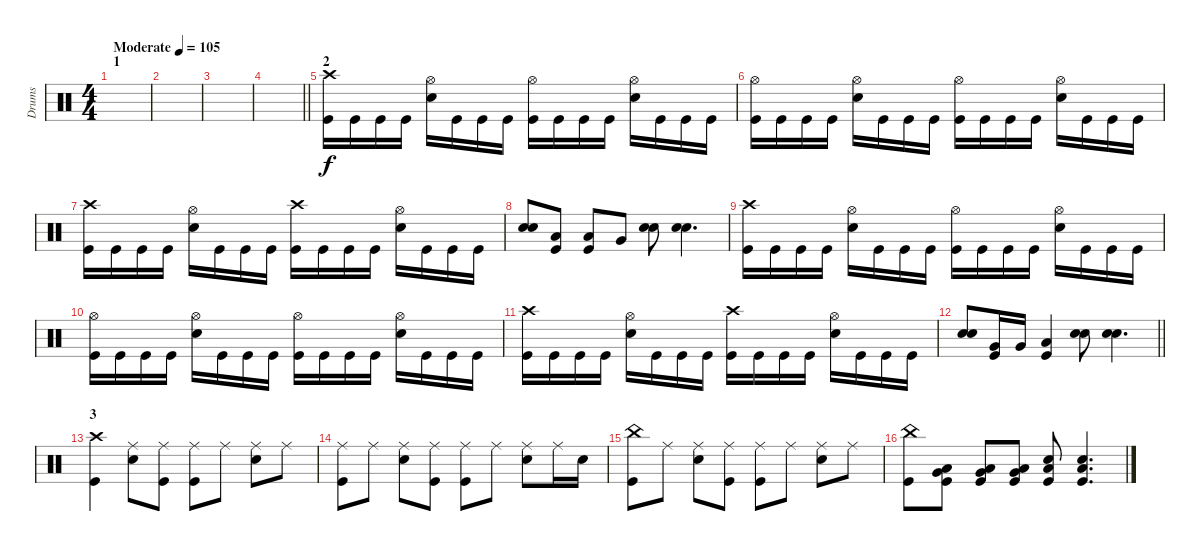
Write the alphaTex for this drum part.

\track ("Drums" "Drums") {instrument percussion}
\staff
\articulation defaults
\ts (4 4)
\section ("" "1")
\tempo (105 "Moderate")
\clef neutral
\ks c
|
|
|
\barLineRight lightlight
|
\section ("" "2")
("Crash high (hit)" "Kick (hit)").16 "Kick (hit)".16 "Kick (hit)".16 "Kick (hit)".16 ("Hi-Hat (open)" "Electric Snare (hit)").16 "Kick (hit)".16 "Kick (hit)".16 "Kick (hit)".16 ("Hi-Hat (open)" "Kick (hit)").16 "Kick (hit)".16 "Kick (hit)".16 "Kick (hit)".16 ("Hi-Hat (open)" "Electric Snare (hit)").16 "Kick (hit)".16 "Kick (hit)".16 "Kick (hit)".16 |
("Hi-Hat (open)" "Kick (hit)").16 "Kick (hit)".16 "Kick (hit)".16 "Kick (hit)".16 ("Hi-Hat (open)" "Electric Snare (hit)").16 "Kick (hit)".16 "Kick (hit)".16 "Kick (hit)".16 ("Hi-Hat (open)" "Kick (hit)").16 "Kick (hit)".16 "Kick (hit)".16 "Kick (hit)".16 ("Hi-Hat (open)" "Electric Snare (hit)").16 "Kick (hit)".16 "Kick (hit)".16 "Kick (hit)".16 |
("Crash high (hit)" "Kick (hit)").16 "Kick (hit)".16 "Kick (hit)".16 "Kick (hit)".16 ("Hi-Hat (open)" "Electric Snare (hit)").16 "Kick (hit)".16 "Kick (hit)".16 "Kick (hit)".16 ("Crash high (hit)" "Kick (hit)").16 "Kick (hit)".16 "Kick (hit)".16 "Kick (hit)".16 ("Hi-Hat (open)" "Electric Snare (hit)").16 "Kick (hit)".16 "Kick (hit)".16 "Kick (hit)".16 |
("Snare (hit) 2" "Electric Snare (hit)").8 ("Low Floor Tom (hit)" "Kick (hit)").8 ("Low Floor Tom (hit)" "Kick (hit)").8 "Very Low Tom (hit)".8 ("Snare (hit) 2" "Electric Snare (hit)").8 ("Snare (hit) 2" "Electric Snare (hit)").4{d} |
("Crash high (hit)" "Kick (hit)").16 "Kick (hit)".16 "Kick (hit)".16 "Kick (hit)".16 ("Hi-Hat (open)" "Electric Snare (hit)").16 "Kick (hit)".16 "Kick (hit)".16 "Kick (hit)".16 ("Hi-Hat (open)" "Kick (hit)").16 "Kick (hit)".16 "Kick (hit)".16 "Kick (hit)".16 ("Hi-Hat (open)" "Electric Snare (hit)").16 "Kick (hit)".16 "Kick (hit)".16 "Kick (hit)".16 |
("Hi-Hat (open)" "Kick (hit)").16 "Kick (hit)".16 "Kick (hit)".16 "Kick (hit)".16 ("Hi-Hat (open)" "Electric Snare (hit)").16 "Kick (hit)".16 "Kick (hit)".16 "Kick (hit)".16 ("Hi-Hat (open)" "Kick (hit)").16 "Kick (hit)".16 "Kick (hit)".16 "Kick (hit)".16 ("Hi-Hat (open)" "Electric Snare (hit)").16 "Kick (hit)".16 "Kick (hit)".16 "Kick (hit)".16 |
("Crash high (hit)" "Kick (hit)").16 "Kick (hit)".16 "Kick (hit)".16 "Kick (hit)".16 ("Hi-Hat (open)" "Electric Snare (hit)").16 "Kick (hit)".16 "Kick (hit)".16 "Kick (hit)".16 ("Crash high (hit)" "Kick (hit)").16 "Kick (hit)".16 "Kick (hit)".16 "Kick (hit)".16 ("Hi-Hat (open)" "Electric Snare (hit)").16 "Kick (hit)".16 "Kick (hit)".16 "Kick (hit)".16 |
\barLineRight lightlight
("Snare (hit) 2" "Electric Snare (hit)").8 ("Very Low Tom (hit)" "Kick (hit)").16 "Very Low Tom (hit)".16 ("Low Floor Tom (hit)" "Kick (hit)").4 ("Snare (hit) 2" "Electric Snare (hit)").8 ("Snare (hit) 2" "Electric Snare (hit)").4{d} |
\section ("" "3")
("Crash high (hit)" "Kick (hit)").4 ("Ride (middle)" "Electric Snare (hit)").8 ("Ride (middle)" "Kick (hit)").8 ("Ride (middle)" "Kick (hit)").8 "Ride (middle)".8 ("Ride (middle)" "Electric Snare (hit)").8 "Ride (middle)".8 |
("Ride (middle)" "Kick (hit)").8 "Ride (middle)".8 ("Ride (middle)" "Electric Snare (hit)").8 ("Ride (middle)" "Kick (hit)").8 ("Ride (middle)" "Kick (hit)").8 "Ride (middle)".8 ("Ride (middle)" "Electric Snare (hit)").8 "Ride (middle)".16 "Electric Snare (hit)".16 |
("China (hit)" "Kick (hit)").8 "Ride (middle)".8 ("Ride (middle)" "Electric Snare (hit)").8 ("Ride (middle)" "Kick (hit)").8 ("Ride (middle)" "Kick (hit)").8 "Ride (middle)".8 ("Ride (middle)" "Electric Snare (hit)").8 "Ride (middle)".8 |
("China (hit)" "Kick (hit)").8 ("Very Low Tom (hit)" "Low Floor Tom (hit)" "Kick (hit)").8 ("Very Low Tom (hit)" "Low Floor Tom (hit)" "Kick (hit)").8 ("Very Low Tom (hit)" "Low Floor Tom (hit)" "Kick (hit)").8 ("Electric Snare (hit)" "Low Floor Tom (hit)" "Kick (hit)").8 ("Electric Snare (hit)" "Low Floor Tom (hit)" "Kick (hit)").4{d}
